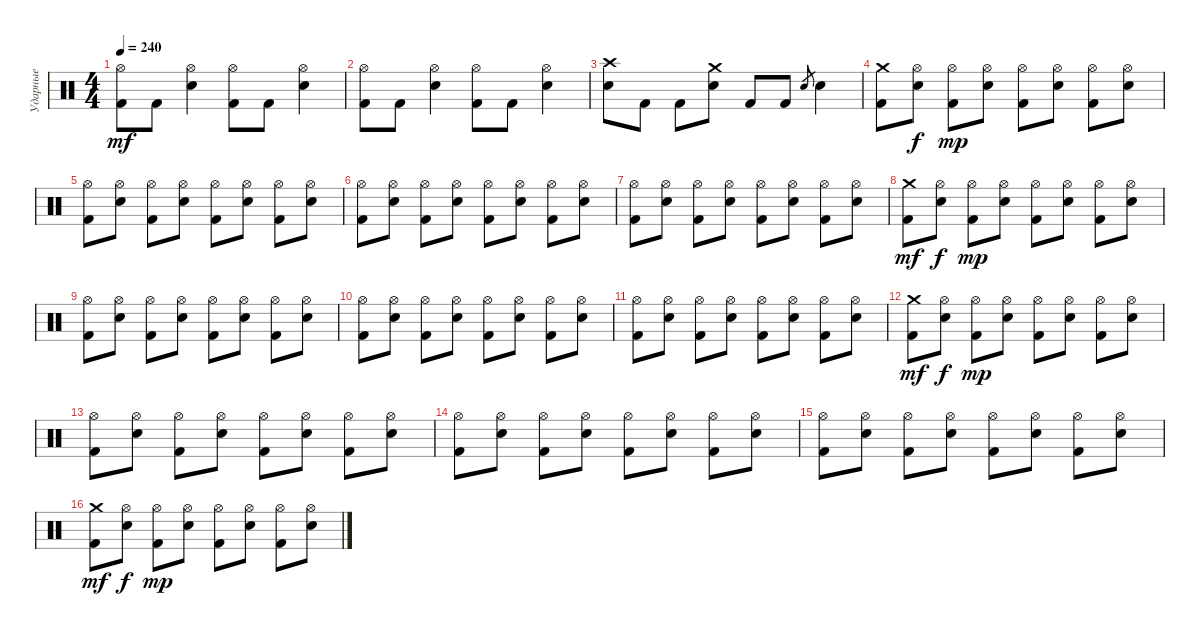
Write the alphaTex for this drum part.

\track ("Ударные" "Ударные") {instrument percussion}
\staff {score}
\articulation defaults
\ts (4 4)
\tempo 240
\clef neutral
\ks c
("Hi-Hat (open)" "Kick (hit) 2").8{dy mf} "Kick (hit) 2".8 ("Hi-Hat (open)" "Snare (hit) 2").4 ("Hi-Hat (open)" "Kick (hit) 2").8 "Kick (hit) 2".8 ("Hi-Hat (open)" "Snare (hit) 2").4 |
("Hi-Hat (open)" "Kick (hit) 2").8 "Kick (hit) 2".8 ("Hi-Hat (open)" "Snare (hit) 2").4 ("Hi-Hat (open)" "Kick (hit) 2").8 "Kick (hit) 2".8 ("Hi-Hat (open)" "Snare (hit) 2").4 |
("Crash high (hit)" "Snare (hit) 2").8 "Kick (hit) 2".8 "Kick (hit) 2".8 ("Crash medium (hit)" "Snare (hit) 2").8 "Kick (hit) 2".8 "Kick (hit) 2".8 "Snare (hit) 2".8{gr} "Snare (hit) 2".4 |
("Crash medium (hit)" "Kick (hit) 2").8 ("Hi-Hat (open)" "Snare (hit) 2").8{dy f} ("Hi-Hat (open)" "Kick (hit) 2").8{dy mp} ("Hi-Hat (open)" "Snare (hit) 2").8 ("Hi-Hat (open)" "Kick (hit) 2").8 ("Hi-Hat (open)" "Snare (hit) 2").8 ("Hi-Hat (open)" "Kick (hit) 2").8 ("Hi-Hat (open)" "Snare (hit) 2").8 |
("Hi-Hat (open)" "Kick (hit) 2").8 ("Hi-Hat (open)" "Snare (hit) 2").8 ("Hi-Hat (open)" "Kick (hit) 2").8 ("Hi-Hat (open)" "Snare (hit) 2").8 ("Hi-Hat (open)" "Kick (hit) 2").8 ("Hi-Hat (open)" "Snare (hit) 2").8 ("Hi-Hat (open)" "Kick (hit) 2").8 ("Hi-Hat (open)" "Snare (hit) 2").8 |
("Hi-Hat (open)" "Kick (hit) 2").8 ("Hi-Hat (open)" "Snare (hit) 2").8 ("Hi-Hat (open)" "Kick (hit) 2").8 ("Hi-Hat (open)" "Snare (hit) 2").8 ("Hi-Hat (open)" "Kick (hit) 2").8 ("Hi-Hat (open)" "Snare (hit) 2").8 ("Hi-Hat (open)" "Kick (hit) 2").8 ("Hi-Hat (open)" "Snare (hit) 2").8 |
("Hi-Hat (open)" "Kick (hit) 2").8 ("Hi-Hat (open)" "Snare (hit) 2").8 ("Hi-Hat (open)" "Kick (hit) 2").8 ("Hi-Hat (open)" "Snare (hit) 2").8 ("Hi-Hat (open)" "Kick (hit) 2").8 ("Hi-Hat (open)" "Snare (hit) 2").8 ("Hi-Hat (open)" "Kick (hit) 2").8 ("Hi-Hat (open)" "Snare (hit) 2").8 |
("Crash medium (hit)" "Kick (hit) 2").8{dy mf} ("Hi-Hat (open)" "Snare (hit) 2").8{dy f} ("Hi-Hat (open)" "Kick (hit) 2").8{dy mp} ("Hi-Hat (open)" "Snare (hit) 2").8 ("Hi-Hat (open)" "Kick (hit) 2").8 ("Hi-Hat (open)" "Snare (hit) 2").8 ("Hi-Hat (open)" "Kick (hit) 2").8 ("Hi-Hat (open)" "Snare (hit) 2").8 |
("Hi-Hat (open)" "Kick (hit) 2").8 ("Hi-Hat (open)" "Snare (hit) 2").8 ("Hi-Hat (open)" "Kick (hit) 2").8 ("Hi-Hat (open)" "Snare (hit) 2").8 ("Hi-Hat (open)" "Kick (hit) 2").8 ("Hi-Hat (open)" "Snare (hit) 2").8 ("Hi-Hat (open)" "Kick (hit) 2").8 ("Hi-Hat (open)" "Snare (hit) 2").8 |
("Hi-Hat (open)" "Kick (hit) 2").8 ("Hi-Hat (open)" "Snare (hit) 2").8 ("Hi-Hat (open)" "Kick (hit) 2").8 ("Hi-Hat (open)" "Snare (hit) 2").8 ("Hi-Hat (open)" "Kick (hit) 2").8 ("Hi-Hat (open)" "Snare (hit) 2").8 ("Hi-Hat (open)" "Kick (hit) 2").8 ("Hi-Hat (open)" "Snare (hit) 2").8 |
("Hi-Hat (open)" "Kick (hit) 2").8 ("Hi-Hat (open)" "Snare (hit) 2").8 ("Hi-Hat (open)" "Kick (hit) 2").8 ("Hi-Hat (open)" "Snare (hit) 2").8 ("Hi-Hat (open)" "Kick (hit) 2").8 ("Hi-Hat (open)" "Snare (hit) 2").8 ("Hi-Hat (open)" "Kick (hit) 2").8 ("Hi-Hat (open)" "Snare (hit) 2").8 |
("Crash medium (hit)" "Kick (hit) 2").8{dy mf} ("Hi-Hat (open)" "Snare (hit) 2").8{dy f} ("Hi-Hat (open)" "Kick (hit) 2").8{dy mp} ("Hi-Hat (open)" "Snare (hit) 2").8 ("Hi-Hat (open)" "Kick (hit) 2").8 ("Hi-Hat (open)" "Snare (hit) 2").8 ("Hi-Hat (open)" "Kick (hit) 2").8 ("Hi-Hat (open)" "Snare (hit) 2").8 |
("Hi-Hat (open)" "Kick (hit) 2").8 ("Hi-Hat (open)" "Snare (hit) 2").8 ("Hi-Hat (open)" "Kick (hit) 2").8 ("Hi-Hat (open)" "Snare (hit) 2").8 ("Hi-Hat (open)" "Kick (hit) 2").8 ("Hi-Hat (open)" "Snare (hit) 2").8 ("Hi-Hat (open)" "Kick (hit) 2").8 ("Hi-Hat (open)" "Snare (hit) 2").8 |
("Hi-Hat (open)" "Kick (hit) 2").8 ("Hi-Hat (open)" "Snare (hit) 2").8 ("Hi-Hat (open)" "Kick (hit) 2").8 ("Hi-Hat (open)" "Snare (hit) 2").8 ("Hi-Hat (open)" "Kick (hit) 2").8 ("Hi-Hat (open)" "Snare (hit) 2").8 ("Hi-Hat (open)" "Kick (hit) 2").8 ("Hi-Hat (open)" "Snare (hit) 2").8 |
("Hi-Hat (open)" "Kick (hit) 2").8 ("Hi-Hat (open)" "Snare (hit) 2").8 ("Hi-Hat (open)" "Kick (hit) 2").8 ("Hi-Hat (open)" "Snare (hit) 2").8 ("Hi-Hat (open)" "Kick (hit) 2").8 ("Hi-Hat (open)" "Snare (hit) 2").8 ("Hi-Hat (open)" "Kick (hit) 2").8 ("Hi-Hat (open)" "Snare (hit) 2").8 |
("Crash medium (hit)" "Kick (hit) 2").8{dy mf} ("Hi-Hat (open)" "Snare (hit) 2").8{dy f} ("Hi-Hat (open)" "Kick (hit) 2").8{dy mp} ("Hi-Hat (open)" "Snare (hit) 2").8 ("Hi-Hat (open)" "Kick (hit) 2").8 ("Hi-Hat (open)" "Snare (hit) 2").8 ("Hi-Hat (open)" "Kick (hit) 2").8 ("Hi-Hat (open)" "Snare (hit) 2").8
